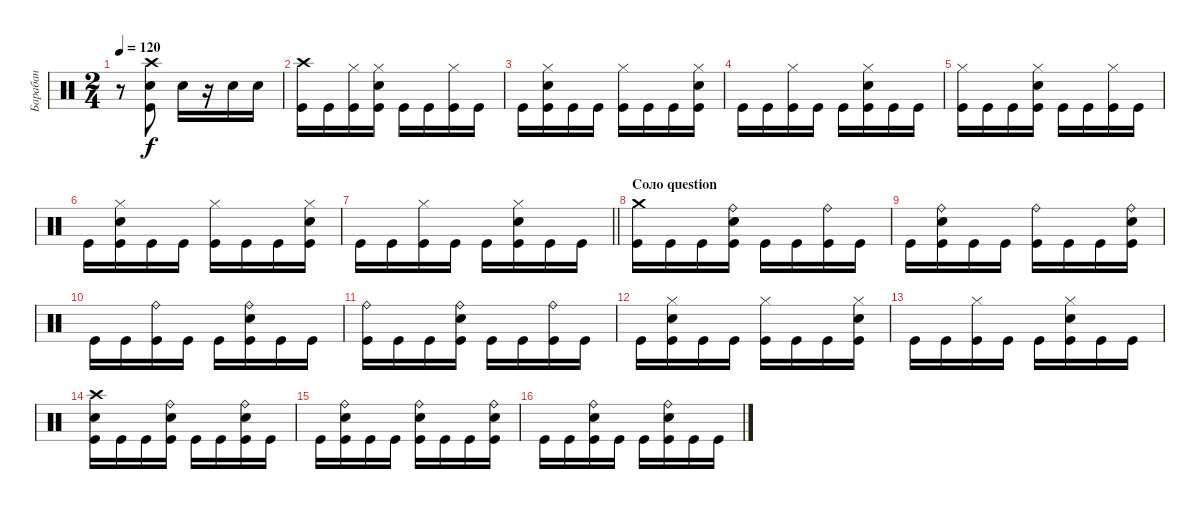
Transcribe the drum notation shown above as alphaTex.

\track ("Барабан" "Барабан") {instrument percussion}
\staff {score}
\articulation defaults
\ts (2 4)
\tempo 120
\clef neutral
\ks c
r.8{dy f} ("Crash high (hit)" "Electric Snare (hit)" "Kick (hit)").8 "Electric Snare (hit)".16 r.16 "Electric Snare (hit)".16 "Electric Snare (hit)".16 |
("Crash high (hit)" "Kick (hit)").16 "Kick (hit)".16 ("Hi-Hat (closed)" "Kick (hit)").16 ("Hi-Hat (closed)" "Electric Snare (hit)" "Kick (hit)").16 "Kick (hit)".16 "Kick (hit)".16 ("Hi-Hat (closed)" "Kick (hit)").16 "Kick (hit)".16 |
"Kick (hit)".16 ("Hi-Hat (closed)" "Electric Snare (hit)" "Kick (hit)").16 "Kick (hit)".16 "Kick (hit)".16 ("Hi-Hat (closed)" "Kick (hit)").16 "Kick (hit)".16 "Kick (hit)".16 ("Hi-Hat (closed)" "Electric Snare (hit)" "Kick (hit)").16 |
"Kick (hit)".16 "Kick (hit)".16 ("Hi-Hat (closed)" "Kick (hit)").16 "Kick (hit)".16 "Kick (hit)".16 ("Hi-Hat (closed)" "Electric Snare (hit)" "Kick (hit)").16 "Kick (hit)".16 "Kick (hit)".16 |
("Hi-Hat (closed)" "Kick (hit)").16 "Kick (hit)".16 "Kick (hit)".16 ("Hi-Hat (closed)" "Electric Snare (hit)" "Kick (hit)").16 "Kick (hit)".16 "Kick (hit)".16 ("Hi-Hat (closed)" "Kick (hit)").16 "Kick (hit)".16 |
"Kick (hit)".16 ("Hi-Hat (closed)" "Electric Snare (hit)" "Kick (hit)").16 "Kick (hit)".16 "Kick (hit)".16 ("Hi-Hat (closed)" "Kick (hit)").16 "Kick (hit)".16 "Kick (hit)".16 ("Hi-Hat (closed)" "Electric Snare (hit)" "Kick (hit)").16 |
\barLineRight lightlight "Kick (hit)".16 "Kick (hit)".16
("Hi-Hat (closed)" "Kick (hit)").16 "Kick (hit)".16 "Kick (hit)".16 ("Hi-Hat (closed)" "Electric Snare (hit)" "Kick (hit)").16 "Kick (hit)".16 "Kick (hit)".16 |
\section ("" "Соло question")
("Crash medium (hit)" "Kick (hit)").16 "Kick (hit)".16 "Kick (hit)".16 ("Ride (bell)" "Electric Snare (hit)" "Kick (hit)").16 "Kick (hit)".16 "Kick (hit)".16 ("Ride (bell)" "Kick (hit)").16 "Kick (hit)".16 |
"Kick (hit)".16 ("Ride (bell)" "Electric Snare (hit)" "Kick (hit)").16 "Kick (hit)".16 "Kick (hit)".16 ("Ride (bell)" "Kick (hit)").16 "Kick (hit)".16 "Kick (hit)".16 ("Ride (bell)" "Electric Snare (hit)" "Kick (hit)").16 |
"Kick (hit)".16 "Kick (hit)".16 ("Ride (bell)" "Kick (hit)").16 "Kick (hit)".16 "Kick (hit)".16 ("Ride (bell)" "Electric Snare (hit)" "Kick (hit)").16 "Kick (hit)".16 "Kick (hit)".16 |
("Ride (bell)" "Kick (hit)").16 "Kick (hit)".16 "Kick (hit)".16 ("Ride (bell)" "Electric Snare (hit)" "Kick (hit)").16 "Kick (hit)".16 "Kick (hit)".16 ("Ride (bell)" "Kick (hit)").16 "Kick (hit)".16 |
"Kick (hit)".16 ("Hi-Hat (closed)" "Electric Snare (hit)" "Kick (hit)").16 "Kick (hit)".16 "Kick (hit)".16 ("Hi-Hat (closed)" "Kick (hit)").16 "Kick (hit)".16 "Kick (hit)".16 ("Hi-Hat (closed)" "Electric Snare (hit)" "Kick (hit)").16 |
"Kick (hit)".16 "Kick (hit)".16 ("Hi-Hat (closed)" "Kick (hit)").16 "Kick (hit)".16 "Kick (hit)".16 ("Hi-Hat (closed)" "Electric Snare (hit)" "Kick (hit)").16 "Kick (hit)".16 "Kick (hit)".16 |
("Crash high (hit)" "Electric Snare (hit)" "Kick (hit)").16 "Kick (hit)".16 "Kick (hit)".16 ("Ride (bell)" "Electric Snare (hit)" "Kick (hit)").16 "Kick (hit)".16 "Kick (hit)".16 ("Ride (bell)" "Electric Snare (hit)" "Kick (hit)").16 "Kick (hit)".16 |
"Kick (hit)".16 ("Ride (bell)" "Electric Snare (hit)" "Kick (hit)").16 "Kick (hit)".16 "Kick (hit)".16 ("Ride (bell)" "Electric Snare (hit)" "Kick (hit)").16 "Kick (hit)".16 "Kick (hit)".16 ("Ride (bell)" "Electric Snare (hit)" "Kick (hit)").16 |
"Kick (hit)".16 "Kick (hit)".16 ("Ride (bell)" "Electric Snare (hit)" "Kick (hit)").16 "Kick (hit)".16 "Kick (hit)".16 ("Ride (bell)" "Electric Snare (hit)" "Kick (hit)").16 "Kick (hit)".16 "Kick (hit)".16
